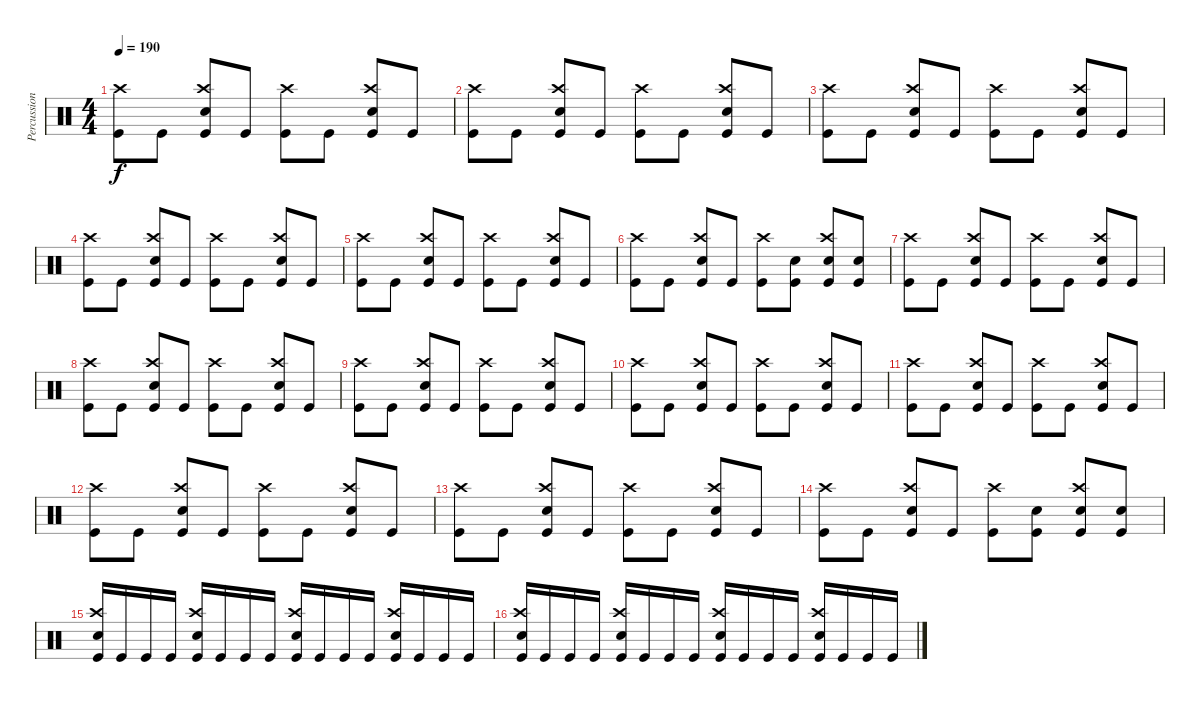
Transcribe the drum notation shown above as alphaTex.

\track ("Percussion" "Percussion") {instrument percussion}
\staff {score}
\articulation defaults
\ts (4 4)
\tempo 190
\clef neutral
\ks c
("Kick (hit)" "Crash high (hit)").8{dy f} "Kick (hit)".8 ("Kick (hit)" "Electric Snare (hit)" "Crash high (hit)").8 "Kick (hit)".8 ("Kick (hit)" "Crash high (hit)").8 "Kick (hit)".8 ("Kick (hit)" "Electric Snare (hit)" "Crash high (hit)").8 "Kick (hit)".8 |
("Kick (hit)" "Crash high (hit)").8 "Kick (hit)".8 ("Kick (hit)" "Electric Snare (hit)" "Crash high (hit)").8 "Kick (hit)".8 ("Kick (hit)" "Crash high (hit)").8 "Kick (hit)".8 ("Kick (hit)" "Electric Snare (hit)" "Crash high (hit)").8 "Kick (hit)".8 |
("Kick (hit)" "Crash high (hit)").8 "Kick (hit)".8 ("Kick (hit)" "Electric Snare (hit)" "Crash high (hit)").8 "Kick (hit)".8 ("Kick (hit)" "Crash high (hit)").8 "Kick (hit)".8 ("Kick (hit)" "Electric Snare (hit)" "Crash high (hit)").8 "Kick (hit)".8 |
("Kick (hit)" "Crash high (hit)").8 "Kick (hit)".8 ("Kick (hit)" "Electric Snare (hit)" "Crash high (hit)").8 "Kick (hit)".8 ("Kick (hit)" "Crash high (hit)").8 "Kick (hit)".8 ("Kick (hit)" "Electric Snare (hit)" "Crash high (hit)").8 "Kick (hit)".8 |
("Kick (hit)" "Crash high (hit)").8 "Kick (hit)".8 ("Kick (hit)" "Electric Snare (hit)" "Crash high (hit)").8 "Kick (hit)".8 ("Kick (hit)" "Crash high (hit)").8 "Kick (hit)".8 ("Kick (hit)" "Electric Snare (hit)" "Crash high (hit)").8 "Kick (hit)".8 |
("Kick (hit)" "Crash high (hit)").8 "Kick (hit)".8 ("Kick (hit)" "Electric Snare (hit)" "Crash high (hit)").8 "Kick (hit)".8 ("Kick (hit)" "Crash high (hit)").8 ("Kick (hit)" "Electric Snare (hit)").8 ("Kick (hit)" "Electric Snare (hit)" "Crash high (hit)").8 ("Kick (hit)" "Electric Snare (hit)").8 |
("Kick (hit)" "Crash high (hit)").8 "Kick (hit)".8 ("Kick (hit)" "Electric Snare (hit)" "Crash high (hit)").8 "Kick (hit)".8 ("Kick (hit)" "Crash high (hit)").8 "Kick (hit)".8 ("Kick (hit)" "Electric Snare (hit)" "Crash high (hit)").8 "Kick (hit)".8 |
("Kick (hit)" "Crash high (hit)").8 "Kick (hit)".8 ("Kick (hit)" "Electric Snare (hit)" "Crash high (hit)").8 "Kick (hit)".8 ("Kick (hit)" "Crash high (hit)").8 "Kick (hit)".8 ("Kick (hit)" "Electric Snare (hit)" "Crash high (hit)").8 "Kick (hit)".8 |
("Kick (hit)" "Crash high (hit)").8 "Kick (hit)".8 ("Kick (hit)" "Electric Snare (hit)" "Crash high (hit)").8 "Kick (hit)".8 ("Kick (hit)" "Crash high (hit)").8 "Kick (hit)".8 ("Kick (hit)" "Electric Snare (hit)" "Crash high (hit)").8 "Kick (hit)".8 |
("Kick (hit)" "Crash high (hit)").8 "Kick (hit)".8 ("Kick (hit)" "Electric Snare (hit)" "Crash high (hit)").8 "Kick (hit)".8 ("Kick (hit)" "Crash high (hit)").8 "Kick (hit)".8 ("Kick (hit)" "Electric Snare (hit)" "Crash high (hit)").8 "Kick (hit)".8 |
("Kick (hit)" "Crash high (hit)").8 "Kick (hit)".8 ("Kick (hit)" "Electric Snare (hit)" "Crash high (hit)").8 "Kick (hit)".8 ("Kick (hit)" "Crash high (hit)").8 "Kick (hit)".8 ("Kick (hit)" "Electric Snare (hit)" "Crash high (hit)").8 "Kick (hit)".8 |
("Kick (hit)" "Crash high (hit)").8 "Kick (hit)".8 ("Kick (hit)" "Electric Snare (hit)" "Crash high (hit)").8 "Kick (hit)".8 ("Kick (hit)" "Crash high (hit)").8 "Kick (hit)".8 ("Kick (hit)" "Electric Snare (hit)" "Crash high (hit)").8 "Kick (hit)".8 |
("Kick (hit)" "Crash high (hit)").8 "Kick (hit)".8 ("Kick (hit)" "Electric Snare (hit)" "Crash high (hit)").8 "Kick (hit)".8 ("Kick (hit)" "Crash high (hit)").8 "Kick (hit)".8 ("Kick (hit)" "Electric Snare (hit)" "Crash high (hit)").8 "Kick (hit)".8 |
("Kick (hit)" "Crash high (hit)").8 "Kick (hit)".8 ("Kick (hit)" "Electric Snare (hit)" "Crash high (hit)").8 "Kick (hit)".8 ("Kick (hit)" "Crash high (hit)").8 ("Kick (hit)" "Electric Snare (hit)").8 ("Kick (hit)" "Electric Snare (hit)" "Crash high (hit)").8 ("Kick (hit)" "Electric Snare (hit)").8 |
("Crash high (hit)" "Electric Snare (hit)" "Kick (hit)").16 "Kick (hit)".16 "Kick (hit)".16 "Kick (hit)".16 ("Crash high (hit)" "Electric Snare (hit)" "Kick (hit)").16 "Kick (hit)".16 "Kick (hit)".16 "Kick (hit)".16 ("Crash high (hit)" "Electric Snare (hit)" "Kick (hit)").16 "Kick (hit)".16 "Kick (hit)".16 "Kick (hit)".16 ("Crash high (hit)" "Electric Snare (hit)" "Kick (hit)").16 "Kick (hit)".16 "Kick (hit)".16 "Kick (hit)".16 |
("Crash high (hit)" "Electric Snare (hit)" "Kick (hit)").16 "Kick (hit)".16 "Kick (hit)".16 "Kick (hit)".16 ("Crash high (hit)" "Electric Snare (hit)" "Kick (hit)").16 "Kick (hit)".16 "Kick (hit)".16 "Kick (hit)".16 ("Crash high (hit)" "Electric Snare (hit)" "Kick (hit)").16 "Kick (hit)".16 "Kick (hit)".16 "Kick (hit)".16 ("Crash high (hit)" "Electric Snare (hit)" "Kick (hit)").16 "Kick (hit)".16 "Kick (hit)".16 "Kick (hit)".16
